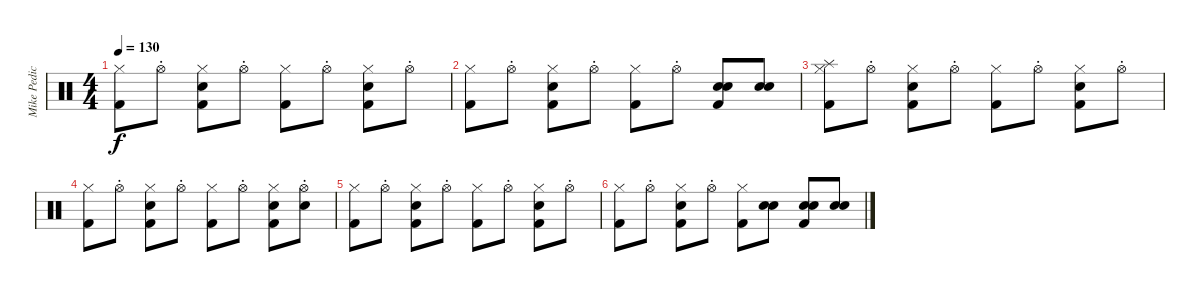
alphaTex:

\track ("Mike Pedicone - Drum" "Mike Pedic") {instrument percussion}
\staff {score}
\articulation defaults
\ts (4 4)
\tempo 130
\clef neutral
\ks c
("Hi-Hat (closed)" "Kick (hit) 2").8{dy f} "Hi-Hat (open)"{st}.8 ("Hi-Hat (closed)" "Electric Snare (hit)" "Kick (hit) 2").8 "Hi-Hat (open)"{st}.8 ("Hi-Hat (closed)" "Kick (hit) 2").8 "Hi-Hat (open)"{st}.8 ("Hi-Hat (closed)" "Electric Snare (hit)" "Kick (hit) 2").8 "Hi-Hat (open)"{st}.8 |
("Hi-Hat (closed)" "Kick (hit) 2").8 "Hi-Hat (open)"{st}.8 ("Hi-Hat (closed)" "Electric Snare (hit)" "Kick (hit) 2").8 "Hi-Hat (open)"{st}.8 ("Hi-Hat (closed)" "Kick (hit) 2").8 "Hi-Hat (open)"{st}.8 ("Hand Clap (hit)" "Electric Snare (hit)" "Kick (hit) 2").8 ("Hand Clap (hit)" "Electric Snare (hit)").8 |
("Hi-Hat (closed)" "Splash (hit)" "Kick (hit) 2").8 "Hi-Hat (open)"{st}.8 ("Hi-Hat (closed)" "Electric Snare (hit)" "Kick (hit) 2").8 "Hi-Hat (open)"{st}.8 ("Hi-Hat (closed)" "Kick (hit) 2").8 "Hi-Hat (open)"{st}.8 ("Hi-Hat (closed)" "Electric Snare (hit)" "Kick (hit) 2").8 "Hi-Hat (open)"{st}.8 |
("Hi-Hat (closed)" "Kick (hit) 2").8 "Hi-Hat (open)"{st}.8 ("Hi-Hat (closed)" "Electric Snare (hit)" "Kick (hit) 2").8 "Hi-Hat (open)"{st}.8 ("Hi-Hat (closed)" "Kick (hit) 2").8 "Hi-Hat (open)"{st}.8 ("Hi-Hat (closed)" "Electric Snare (hit)" "Kick (hit) 2").8 ("Hi-Hat (open)"{st} "Electric Snare (hit)").8 |
("Hi-Hat (closed)" "Kick (hit) 2").8 "Hi-Hat (open)"{st}.8 ("Hi-Hat (closed)" "Electric Snare (hit)" "Kick (hit) 2").8 "Hi-Hat (open)"{st}.8 ("Hi-Hat (closed)" "Kick (hit) 2").8 "Hi-Hat (open)"{st}.8 ("Hi-Hat (closed)" "Electric Snare (hit)" "Kick (hit) 2").8 "Hi-Hat (open)"{st}.8 |
("Hi-Hat (closed)" "Kick (hit) 2").8 "Hi-Hat (open)"{st}.8 ("Hi-Hat (closed)" "Electric Snare (hit)" "Kick (hit) 2").8 "Hi-Hat (open)"{st}.8 ("Hi-Hat (closed)" "Kick (hit) 2").8 ("Hand Clap (hit)" "Electric Snare (hit)").8 ("Hand Clap (hit)" "Electric Snare (hit)" "Kick (hit) 2").8 ("Hand Clap (hit)" "Electric Snare (hit)").8
